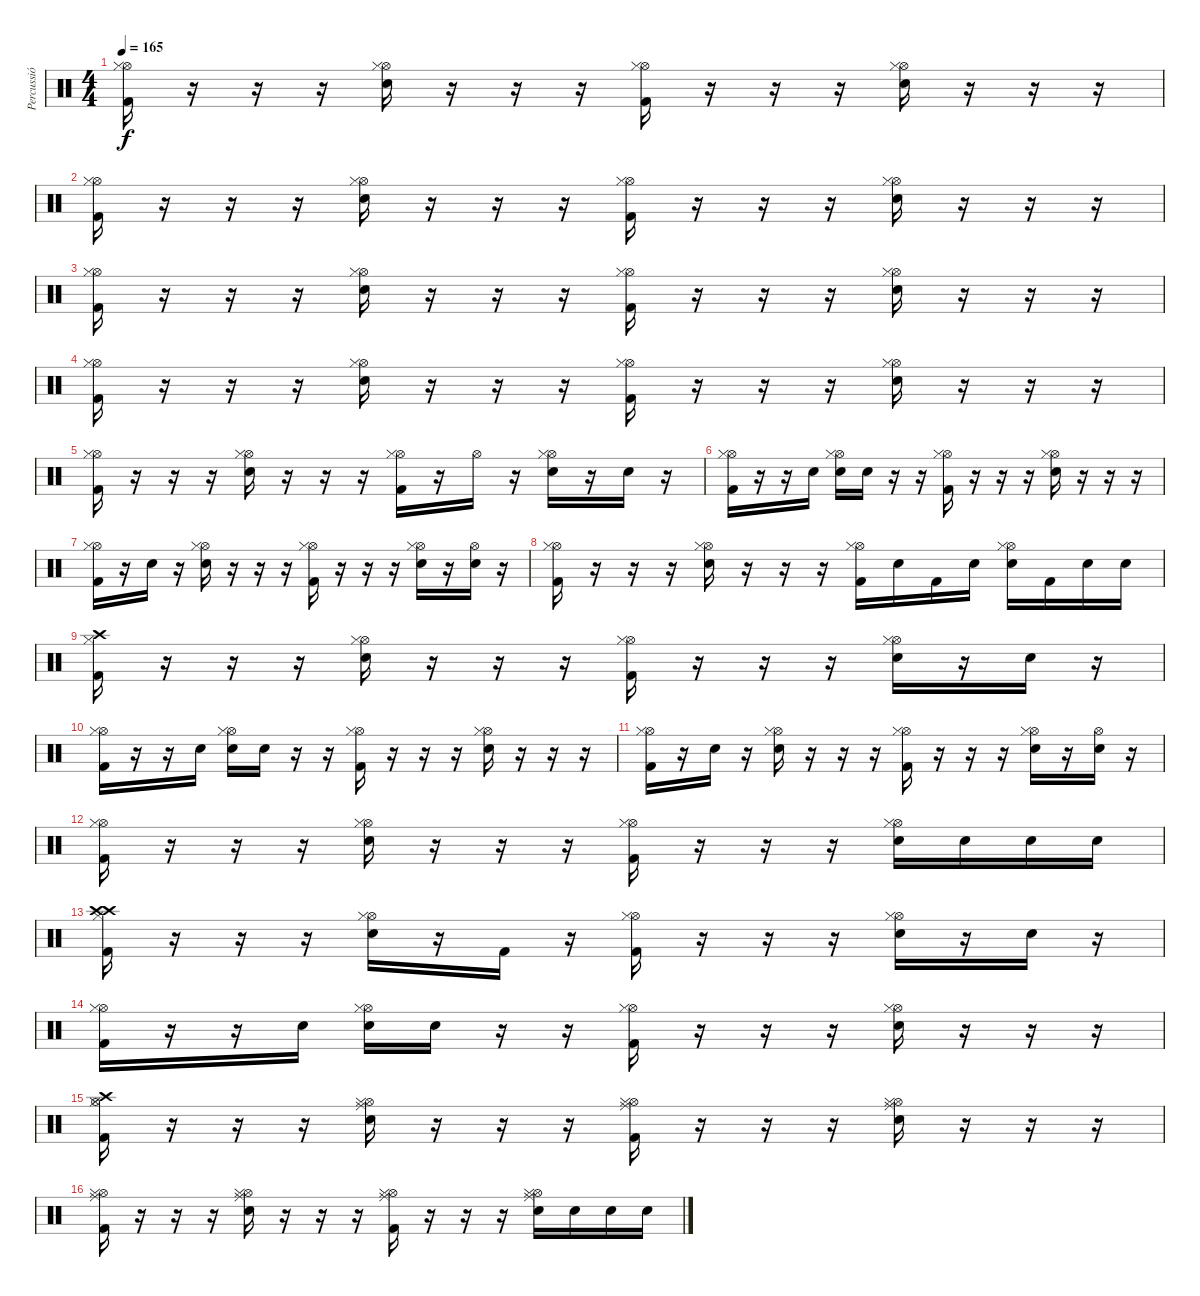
\track ("Percussió" "Percussió") {instrument percussion}
\staff {score}
\articulation defaults
\ts (4 4)
\tempo 165
\clef neutral
\ks c
("Hi-Hat (open)" "Hi-Hat (closed)" "Kick (hit) 2").16{dy f} r.16 r.16 r.16 ("Hi-Hat (open)" "Hi-Hat (closed)" "Electric Snare (hit)").16 r.16 r.16 r.16 ("Hi-Hat (open)" "Hi-Hat (closed)" "Kick (hit) 2").16 r.16 r.16 r.16 ("Hi-Hat (open)" "Hi-Hat (closed)" "Electric Snare (hit)").16 r.16 r.16 r.16 |
("Hi-Hat (open)" "Hi-Hat (closed)" "Kick (hit) 2").16 r.16 r.16 r.16 ("Hi-Hat (open)" "Hi-Hat (closed)" "Electric Snare (hit)").16 r.16 r.16 r.16 ("Hi-Hat (open)" "Hi-Hat (closed)" "Kick (hit) 2").16 r.16 r.16 r.16 ("Hi-Hat (open)" "Hi-Hat (closed)" "Electric Snare (hit)").16 r.16 r.16 r.16 |
("Hi-Hat (open)" "Hi-Hat (closed)" "Kick (hit) 2").16 r.16 r.16 r.16 ("Hi-Hat (open)" "Hi-Hat (closed)" "Electric Snare (hit)").16 r.16 r.16 r.16 ("Hi-Hat (open)" "Hi-Hat (closed)" "Kick (hit) 2").16 r.16 r.16 r.16 ("Hi-Hat (open)" "Hi-Hat (closed)" "Electric Snare (hit)").16 r.16 r.16 r.16 |
("Hi-Hat (open)" "Hi-Hat (closed)" "Kick (hit) 2").16 r.16 r.16 r.16 ("Hi-Hat (open)" "Hi-Hat (closed)" "Electric Snare (hit)").16 r.16 r.16 r.16 ("Hi-Hat (open)" "Hi-Hat (closed)" "Kick (hit) 2").16 r.16 r.16 r.16 ("Hi-Hat (open)" "Hi-Hat (closed)" "Electric Snare (hit)").16 r.16 r.16 r.16 |
("Hi-Hat (open)" "Hi-Hat (closed)" "Kick (hit) 2").16 r.16 r.16 r.16 ("Hi-Hat (open)" "Hi-Hat (closed)" "Electric Snare (hit)").16 r.16 r.16 r.16 ("Hi-Hat (open)" "Hi-Hat (closed)" "Kick (hit) 2").16 r.16 "Hi-Hat (open)".16 r.16 ("Hi-Hat (open)" "Hi-Hat (closed)" "Electric Snare (hit)").16 r.16 "Electric Snare (hit)".16 r.16 |
("Hi-Hat (open)" "Hi-Hat (closed)" "Kick (hit) 2").16 r.16 r.16 "Electric Snare (hit)".16 ("Hi-Hat (open)" "Hi-Hat (closed)" "Electric Snare (hit)").16 "Electric Snare (hit)".16 r.16 r.16 ("Hi-Hat (open)" "Hi-Hat (closed)" "Kick (hit) 2").16 r.16 r.16 r.16 ("Hi-Hat (open)" "Hi-Hat (closed)" "Electric Snare (hit)").16 r.16 r.16 r.16 |
("Hi-Hat (open)" "Hi-Hat (closed)" "Kick (hit) 2").16 r.16 "Electric Snare (hit)".16 r.16 ("Hi-Hat (open)" "Hi-Hat (closed)" "Electric Snare (hit)").16 r.16 r.16 r.16 ("Hi-Hat (open)" "Hi-Hat (closed)" "Kick (hit) 2").16 r.16 r.16 r.16 ("Hi-Hat (open)" "Hi-Hat (closed)" "Electric Snare (hit)").16 r.16 ("Hi-Hat (open)" "Electric Snare (hit)").16 r.16 |
("Hi-Hat (open)" "Hi-Hat (closed)" "Kick (hit) 2").16 r.16 r.16 r.16 ("Hi-Hat (open)" "Hi-Hat (closed)" "Electric Snare (hit)").16 r.16 r.16 r.16 ("Hi-Hat (open)" "Hi-Hat (closed)" "Kick (hit) 2").16 "Electric Snare (hit)".16 "Kick (hit) 2".16 "Electric Snare (hit)".16 ("Hi-Hat (open)" "Hi-Hat (closed)" "Electric Snare (hit)").16 "Kick (hit) 2".16 "Electric Snare (hit)".16 "Electric Snare (hit)".16 |
("Crash high (hit)" "Hi-Hat (closed)" "Kick (hit) 2").16 r.16 r.16 r.16 ("Hi-Hat (open)" "Hi-Hat (closed)" "Electric Snare (hit)").16 r.16 r.16 r.16 ("Hi-Hat (open)" "Hi-Hat (closed)" "Kick (hit) 2").16 r.16 r.16 r.16 ("Hi-Hat (open)" "Hi-Hat (closed)" "Electric Snare (hit)").16 r.16 "Electric Snare (hit)".16 r.16 |
("Hi-Hat (open)" "Hi-Hat (closed)" "Kick (hit) 2").16 r.16 r.16 "Electric Snare (hit)".16 ("Hi-Hat (open)" "Hi-Hat (closed)" "Electric Snare (hit)").16 "Electric Snare (hit)".16 r.16 r.16 ("Hi-Hat (open)" "Hi-Hat (closed)" "Kick (hit) 2").16 r.16 r.16 r.16 ("Hi-Hat (open)" "Hi-Hat (closed)" "Electric Snare (hit)").16 r.16 r.16 r.16 |
("Hi-Hat (open)" "Hi-Hat (closed)" "Kick (hit) 2").16 r.16 "Electric Snare (hit)".16 r.16 ("Hi-Hat (open)" "Hi-Hat (closed)" "Electric Snare (hit)").16 r.16 r.16 r.16 ("Hi-Hat (open)" "Hi-Hat (closed)" "Kick (hit) 2").16 r.16 r.16 r.16 ("Hi-Hat (open)" "Hi-Hat (closed)" "Electric Snare (hit)").16 r.16 ("Hi-Hat (open)" "Electric Snare (hit)").16 r.16 |
("Hi-Hat (open)" "Hi-Hat (closed)" "Kick (hit) 2").16 r.16 r.16 r.16 ("Hi-Hat (open)" "Hi-Hat (closed)" "Electric Snare (hit)").16 r.16 r.16 r.16 ("Hi-Hat (open)" "Hi-Hat (closed)" "Kick (hit) 2").16 r.16 r.16 r.16 ("Hi-Hat (open)" "Hi-Hat (closed)" "Electric Snare (hit)").16 "Electric Snare (hit)".16 "Electric Snare (hit)".16 "Electric Snare (hit)".16 |
("Crash high (hit)" "Crash high (hit)" "Hi-Hat (closed)" "Kick (hit) 2").16 r.16 r.16 r.16 ("Hi-Hat (open)" "Hi-Hat (closed)" "Electric Snare (hit)").16 r.16 "Kick (hit) 2".16 r.16 ("Hi-Hat (open)" "Hi-Hat (closed)" "Kick (hit) 2").16 r.16 r.16 r.16 ("Hi-Hat (open)" "Hi-Hat (closed)" "Electric Snare (hit)").16 r.16 "Electric Snare (hit)".16 r.16 |
("Hi-Hat (open)" "Hi-Hat (closed)" "Kick (hit) 2").16 r.16 r.16 "Electric Snare (hit)".16 ("Hi-Hat (open)" "Hi-Hat (closed)" "Electric Snare (hit)").16 "Electric Snare (hit)".16 r.16 r.16 ("Hi-Hat (open)" "Hi-Hat (closed)" "Kick (hit) 2").16 r.16 r.16 r.16 ("Hi-Hat (open)" "Hi-Hat (closed)" "Electric Snare (hit)").16 r.16 r.16 r.16 |
("Crash high (hit)" "Hi-Hat (open)" "Hi-Hat (closed)" "Kick (hit) 2").16 r.16 r.16 r.16 ("Ride (middle)" "Hi-Hat (open)" "Hi-Hat (closed)" "Electric Snare (hit)").16 r.16 r.16 r.16 ("Ride (middle)" "Hi-Hat (open)" "Hi-Hat (closed)" "Kick (hit) 2").16 r.16 r.16 r.16 ("Ride (middle)" "Hi-Hat (open)" "Hi-Hat (closed)" "Electric Snare (hit)").16 r.16 r.16 r.16 |
("Ride (middle)" "Hi-Hat (open)" "Hi-Hat (closed)" "Kick (hit) 2").16 r.16 r.16 r.16 ("Ride (middle)" "Hi-Hat (open)" "Hi-Hat (closed)" "Electric Snare (hit)").16 r.16 r.16 r.16 ("Ride (middle)" "Hi-Hat (open)" "Hi-Hat (closed)" "Kick (hit) 2").16 r.16 r.16 r.16 ("Ride (middle)" "Hi-Hat (open)" "Hi-Hat (closed)" "Electric Snare (hit)").16 "Electric Snare (hit)".16 "Electric Snare (hit)".16 "Electric Snare (hit)".16
